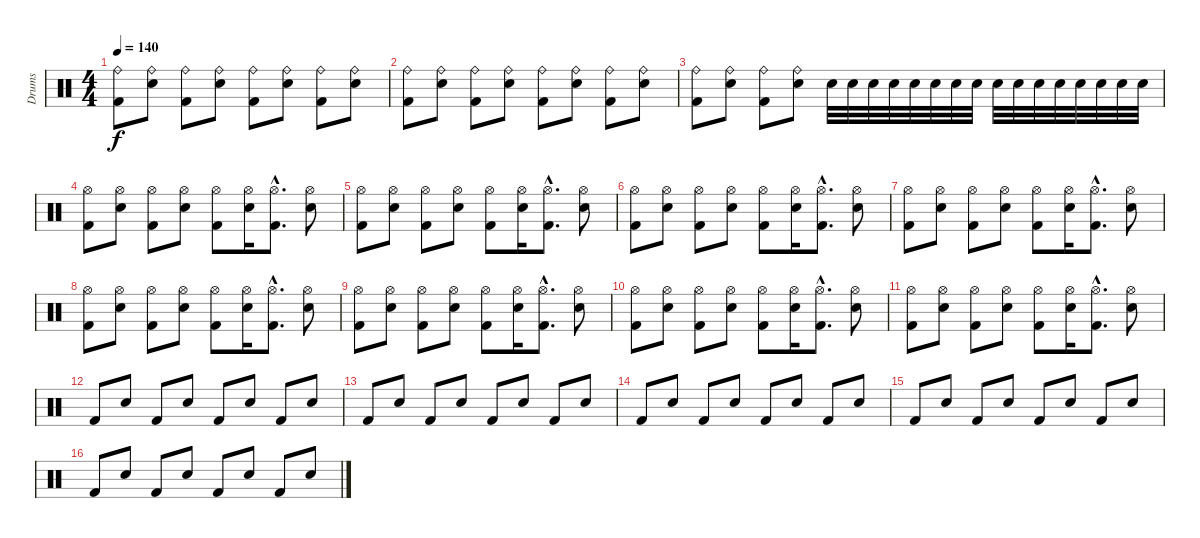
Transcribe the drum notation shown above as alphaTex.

\track ("Drums" "Drums") {instrument percussion}
\staff {score}
\articulation defaults
\ts (4 4)
\tempo 140
\clef neutral
\ks c
("Ride (bell)" "Kick (hit) 2").8{dy f} ("Ride (bell)" "Electric Snare (hit)").8 ("Ride (bell)" "Kick (hit) 2").8 ("Ride (bell)" "Electric Snare (hit)").8 ("Ride (bell)" "Kick (hit) 2").8 ("Ride (bell)" "Electric Snare (hit)").8 ("Ride (bell)" "Kick (hit) 2").8 ("Ride (bell)" "Electric Snare (hit)").8 |
("Ride (bell)" "Kick (hit) 2").8 ("Ride (bell)" "Electric Snare (hit)").8 ("Ride (bell)" "Kick (hit) 2").8 ("Ride (bell)" "Electric Snare (hit)").8 ("Ride (bell)" "Kick (hit) 2").8 ("Ride (bell)" "Electric Snare (hit)").8 ("Ride (bell)" "Kick (hit) 2").8 ("Ride (bell)" "Electric Snare (hit)").8 |
("Ride (bell)" "Kick (hit) 2").8 ("Ride (bell)" "Electric Snare (hit)").8 ("Ride (bell)" "Kick (hit) 2").8 ("Ride (bell)" "Electric Snare (hit)").8 "Electric Snare (hit)".32 "Electric Snare (hit)".32 "Electric Snare (hit)".32 "Electric Snare (hit)".32 "Electric Snare (hit)".32 "Electric Snare (hit)".32 "Electric Snare (hit)".32 "Electric Snare (hit)".32 "Electric Snare (hit)".32 "Electric Snare (hit)".32 "Electric Snare (hit)".32 "Electric Snare (hit)".32 "Electric Snare (hit)".32 "Electric Snare (hit)".32 "Electric Snare (hit)".32 "Electric Snare (hit)".32 |
("Hi-Hat (open)" "Kick (hit) 2").8 ("Hi-Hat (open)" "Electric Snare (hit)").8 ("Hi-Hat (open)" "Kick (hit) 2").8 ("Hi-Hat (open)" "Electric Snare (hit)").8 ("Hi-Hat (open)" "Kick (hit) 2").8 ("Hi-Hat (open)" "Electric Snare (hit)").16 ("Hi-Hat (open)"{hac} "Kick (hit) 2"{hac}).8{d} ("Hi-Hat (open)" "Electric Snare (hit)").8 |
("Hi-Hat (open)" "Kick (hit) 2").8 ("Hi-Hat (open)" "Electric Snare (hit)").8 ("Hi-Hat (open)" "Kick (hit) 2").8 ("Hi-Hat (open)" "Electric Snare (hit)").8 ("Hi-Hat (open)" "Kick (hit) 2").8 ("Hi-Hat (open)" "Electric Snare (hit)").16 ("Hi-Hat (open)"{hac} "Kick (hit) 2"{hac}).8{d} ("Hi-Hat (open)" "Electric Snare (hit)").8 |
("Hi-Hat (open)" "Kick (hit) 2").8 ("Hi-Hat (open)" "Electric Snare (hit)").8 ("Hi-Hat (open)" "Kick (hit) 2").8 ("Hi-Hat (open)" "Electric Snare (hit)").8 ("Hi-Hat (open)" "Kick (hit) 2").8 ("Hi-Hat (open)" "Electric Snare (hit)").16 ("Hi-Hat (open)"{hac} "Kick (hit) 2"{hac}).8{d} ("Hi-Hat (open)" "Electric Snare (hit)").8 |
("Hi-Hat (open)" "Kick (hit) 2").8 ("Hi-Hat (open)" "Electric Snare (hit)").8 ("Hi-Hat (open)" "Kick (hit) 2").8 ("Hi-Hat (open)" "Electric Snare (hit)").8 ("Hi-Hat (open)" "Kick (hit) 2").8 ("Hi-Hat (open)" "Electric Snare (hit)").16 ("Hi-Hat (open)"{hac} "Kick (hit) 2"{hac}).8{d} ("Hi-Hat (open)" "Electric Snare (hit)").8 |
("Hi-Hat (open)" "Kick (hit) 2").8 ("Hi-Hat (open)" "Electric Snare (hit)").8 ("Hi-Hat (open)" "Kick (hit) 2").8 ("Hi-Hat (open)" "Electric Snare (hit)").8 ("Hi-Hat (open)" "Kick (hit) 2").8 ("Hi-Hat (open)" "Electric Snare (hit)").16 ("Hi-Hat (open)"{hac} "Kick (hit) 2"{hac}).8{d} ("Hi-Hat (open)" "Electric Snare (hit)").8 |
("Hi-Hat (open)" "Kick (hit) 2").8 ("Hi-Hat (open)" "Electric Snare (hit)").8 ("Hi-Hat (open)" "Kick (hit) 2").8 ("Hi-Hat (open)" "Electric Snare (hit)").8 ("Hi-Hat (open)" "Kick (hit) 2").8 ("Hi-Hat (open)" "Electric Snare (hit)").16 ("Hi-Hat (open)"{hac} "Kick (hit) 2"{hac}).8{d} ("Hi-Hat (open)" "Electric Snare (hit)").8 |
("Hi-Hat (open)" "Kick (hit) 2").8 ("Hi-Hat (open)" "Electric Snare (hit)").8 ("Hi-Hat (open)" "Kick (hit) 2").8 ("Hi-Hat (open)" "Electric Snare (hit)").8 ("Hi-Hat (open)" "Kick (hit) 2").8 ("Hi-Hat (open)" "Electric Snare (hit)").16 ("Hi-Hat (open)"{hac} "Kick (hit) 2"{hac}).8{d} ("Hi-Hat (open)" "Electric Snare (hit)").8 |
("Hi-Hat (open)" "Kick (hit) 2").8 ("Hi-Hat (open)" "Electric Snare (hit)").8 ("Hi-Hat (open)" "Kick (hit) 2").8 ("Hi-Hat (open)" "Electric Snare (hit)").8 ("Hi-Hat (open)" "Kick (hit) 2").8 ("Hi-Hat (open)" "Electric Snare (hit)").16 ("Hi-Hat (open)"{hac} "Kick (hit) 2"{hac}).8{d} ("Hi-Hat (open)" "Electric Snare (hit)").8 |
"Kick (hit) 2".8 "Electric Snare (hit)".8 "Kick (hit) 2".8 "Electric Snare (hit)".8 "Kick (hit) 2".8 "Electric Snare (hit)".8 "Kick (hit) 2".8 "Electric Snare (hit)".8 |
"Kick (hit) 2".8 "Electric Snare (hit)".8 "Kick (hit) 2".8 "Electric Snare (hit)".8 "Kick (hit) 2".8 "Electric Snare (hit)".8 "Kick (hit) 2".8 "Electric Snare (hit)".8 |
"Kick (hit) 2".8 "Electric Snare (hit)".8 "Kick (hit) 2".8 "Electric Snare (hit)".8 "Kick (hit) 2".8 "Electric Snare (hit)".8 "Kick (hit) 2".8 "Electric Snare (hit)".8 |
"Kick (hit) 2".8 "Electric Snare (hit)".8 "Kick (hit) 2".8 "Electric Snare (hit)".8 "Kick (hit) 2".8 "Electric Snare (hit)".8 "Kick (hit) 2".8 "Electric Snare (hit)".8 |
"Kick (hit) 2".8 "Electric Snare (hit)".8 "Kick (hit) 2".8 "Electric Snare (hit)".8 "Kick (hit) 2".8 "Electric Snare (hit)".8 "Kick (hit) 2".8 "Electric Snare (hit)".8
